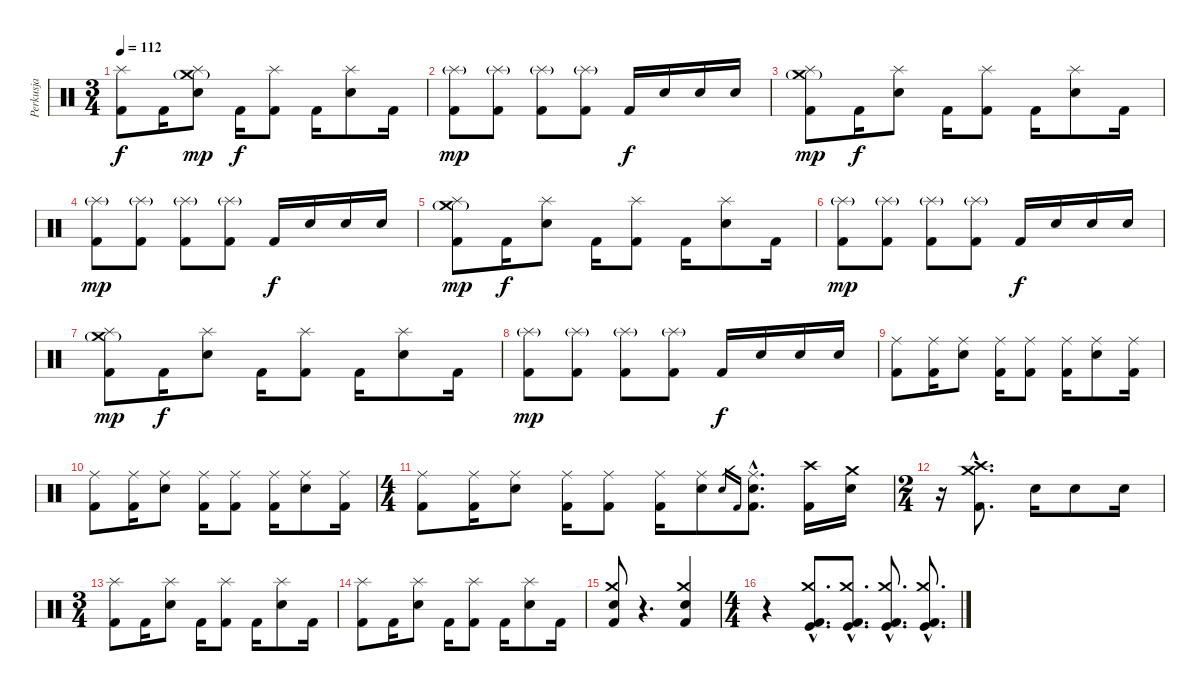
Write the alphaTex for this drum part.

\track ("Perkusja" "Perkusja") {instrument percussion}
\staff {score}
\articulation defaults
\ts (3 4)
\tempo 112
\clef neutral
\ks c
("Splash (hit)" "Kick (hit) 2").8{dy f} "Kick (hit) 2".16 ("Splash (hit)" "Crash medium (hit)"{g} "Electric Snare (hit)").8{dy mp} "Kick (hit) 2".16{dy f} ("Splash (hit)" "Kick (hit) 2").8 "Kick (hit) 2".16 ("Splash (hit)" "Electric Snare (hit)").8 "Kick (hit) 2".16 |
("Splash (hit)"{g} "Kick (hit) 2").8{dy mp} ("Splash (hit)"{g} "Kick (hit) 2").8 ("Splash (hit)"{g} "Kick (hit) 2").8 ("Splash (hit)"{g} "Kick (hit) 2").8 "Kick (hit) 2".16{dy f} "Electric Snare (hit)".16 "Electric Snare (hit)".16 "Electric Snare (hit)".16 |
("Splash (hit)" "Crash medium (hit)"{g} "Kick (hit) 2").8{dy mp} "Kick (hit) 2".16{dy f} ("Splash (hit)" "Electric Snare (hit)").8 "Kick (hit) 2".16 ("Splash (hit)" "Kick (hit) 2").8 "Kick (hit) 2".16 ("Splash (hit)" "Electric Snare (hit)").8 "Kick (hit) 2".16 |
("Splash (hit)"{g} "Kick (hit) 2").8{dy mp} ("Splash (hit)"{g} "Kick (hit) 2").8 ("Splash (hit)"{g} "Kick (hit) 2").8 ("Splash (hit)"{g} "Kick (hit) 2").8 "Kick (hit) 2".16{dy f} "Electric Snare (hit)".16 "Electric Snare (hit)".16 "Electric Snare (hit)".16 |
("Splash (hit)" "Crash medium (hit)"{g} "Kick (hit) 2").8{dy mp} "Kick (hit) 2".16{dy f} ("Splash (hit)" "Electric Snare (hit)").8 "Kick (hit) 2".16 ("Splash (hit)" "Kick (hit) 2").8 "Kick (hit) 2".16 ("Splash (hit)" "Electric Snare (hit)").8 "Kick (hit) 2".16 |
("Splash (hit)"{g} "Kick (hit) 2").8{dy mp} ("Splash (hit)"{g} "Kick (hit) 2").8 ("Splash (hit)"{g} "Kick (hit) 2").8 ("Splash (hit)"{g} "Kick (hit) 2").8 "Kick (hit) 2".16{dy f} "Electric Snare (hit)".16 "Electric Snare (hit)".16 "Electric Snare (hit)".16 |
("Splash (hit)" "Crash medium (hit)"{g} "Kick (hit) 2").8{dy mp} "Kick (hit) 2".16{dy f} ("Splash (hit)" "Electric Snare (hit)").8 "Kick (hit) 2".16 ("Splash (hit)" "Kick (hit) 2").8 "Kick (hit) 2".16 ("Splash (hit)" "Electric Snare (hit)").8 "Kick (hit) 2".16 |
("Splash (hit)"{g} "Kick (hit) 2").8{dy mp} ("Splash (hit)"{g} "Kick (hit) 2").8 ("Splash (hit)"{g} "Kick (hit) 2").8 ("Splash (hit)"{g} "Kick (hit) 2").8 "Kick (hit) 2".16{dy f} "Electric Snare (hit)".16 "Electric Snare (hit)".16 "Electric Snare (hit)".16 |
("Ride (middle)" "Kick (hit) 2").8 ("Ride (middle)" "Kick (hit) 2").16 ("Ride (middle)" "Electric Snare (hit)").8 ("Ride (middle)" "Kick (hit) 2").16 ("Ride (middle)" "Kick (hit) 2").8 ("Ride (middle)" "Kick (hit) 2").16 ("Ride (middle)" "Electric Snare (hit)").8 ("Ride (middle)" "Kick (hit) 2").16 |
("Ride (middle)" "Kick (hit) 2").8 ("Ride (middle)" "Kick (hit) 2").16 ("Ride (middle)" "Electric Snare (hit)").8 ("Ride (middle)" "Kick (hit) 2").16 ("Ride (middle)" "Kick (hit) 2").8 ("Ride (middle)" "Kick (hit) 2").16 ("Ride (middle)" "Electric Snare (hit)").8 ("Ride (middle)" "Kick (hit) 2").16 |
\ts (4 4)
("Ride (middle)" "Kick (hit) 2").8 ("Ride (middle)" "Kick (hit) 2").16 ("Ride (middle)" "Electric Snare (hit)").8 ("Ride (middle)" "Kick (hit) 2").16 ("Ride (middle)" "Kick (hit) 2").8 ("Ride (middle)" "Kick (hit) 2").16 ("Ride (middle)" "Electric Snare (hit)").8 "Electric Snare (hit)".16{gr} "Kick (hit) 2".16{gr} ("Ride (middle)"{hac} "Electric Snare (hit)"{hac} "Kick (hit) 2"{hac}).8{d} ("Crash high (hit)" "Kick (hit) 2").16 ("Crash medium (hit)" "Electric Snare (hit)").16 |
\ts (2 4)
r.16 ("Crash high (hit)"{hac} "Crash medium (hit)"{hac} "Kick (hit) 2"{hac}).8{d} "Electric Snare (hit)".16 "Electric Snare (hit)".8 "Electric Snare (hit)".16 |
\ts (3 4)
("Splash (hit)" "Kick (hit) 2").8 "Kick (hit) 2".16 ("Splash (hit)" "Electric Snare (hit)").8 "Kick (hit) 2".16 ("Splash (hit)" "Kick (hit) 2").8 "Kick (hit) 2".16 ("Splash (hit)" "Electric Snare (hit)").8 "Kick (hit) 2".16 |
("Splash (hit)" "Kick (hit) 2").8 "Kick (hit) 2".16 ("Splash (hit)" "Electric Snare (hit)").8 "Kick (hit) 2".16 ("Splash (hit)" "Kick (hit) 2").8 "Kick (hit) 2".16 ("Splash (hit)" "Electric Snare (hit)").8 "Kick (hit) 2".16 |
("Crash medium (hit)" "Electric Snare (hit)" "Kick (hit) 2").8 r.4{d} ("Crash medium (hit)" "Electric Snare (hit)" "Kick (hit) 2").4 |
\ts (4 4)
r.4 ("Crash medium (hit)"{hac} "Kick (hit)"{hac} "Kick (hit) 2"{hac}).8{d} ("Crash medium (hit)"{hac} "Kick (hit)"{hac} "Kick (hit) 2"{hac}).8{d} ("Crash medium (hit)"{hac} "Kick (hit)"{hac} "Kick (hit) 2"{hac}).8{d} ("Crash medium (hit)"{hac} "Kick (hit)"{hac} "Kick (hit) 2"{hac}).8{d}
